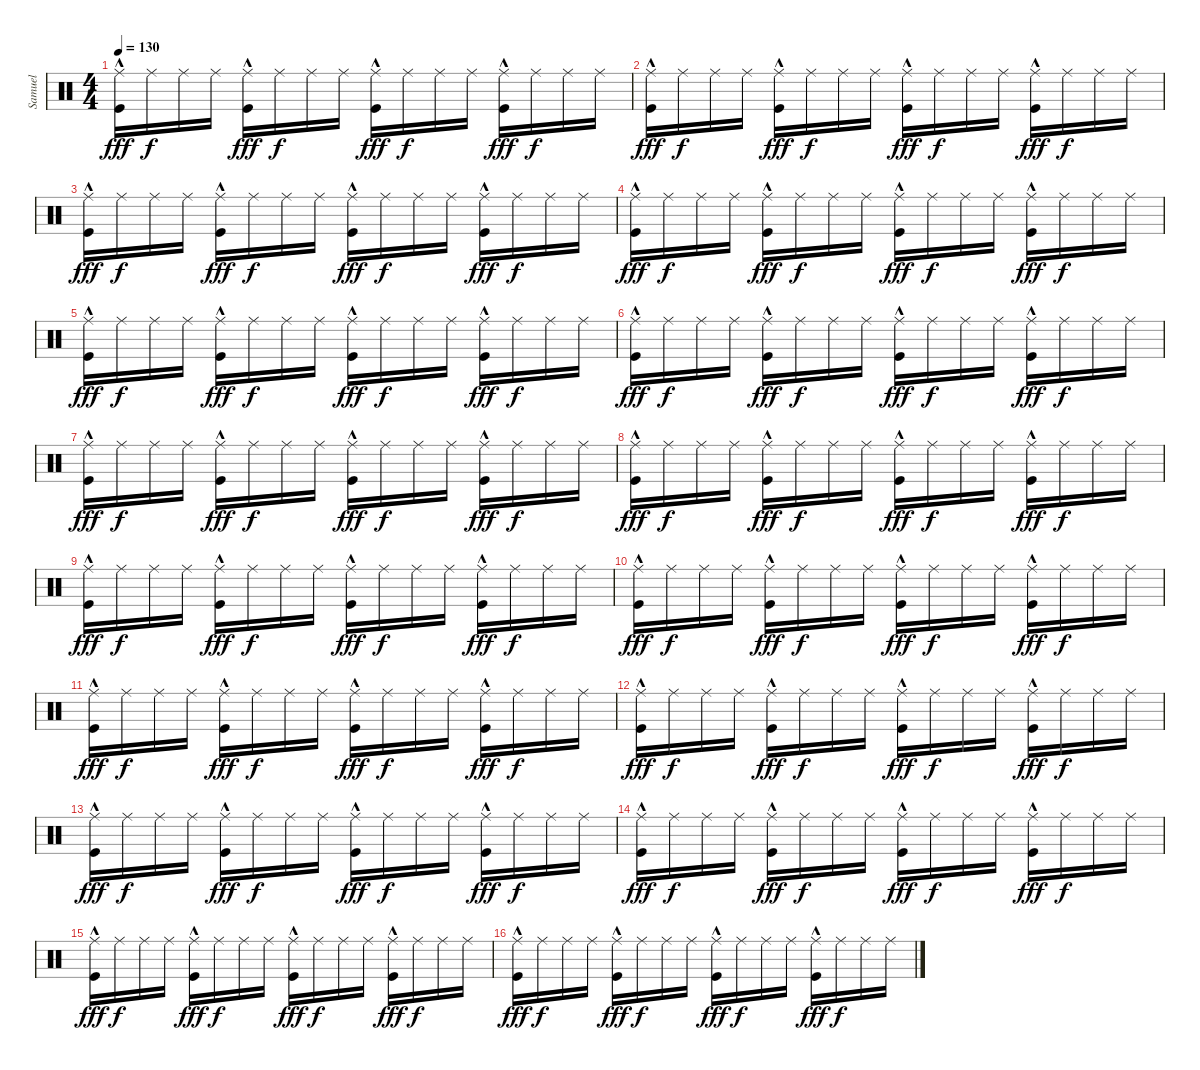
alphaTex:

\track ("Samuel" "Samuel") {instrument percussion}
\staff {score}
\articulation defaults
\ts (4 4)
\tempo 130
\clef neutral
\ks c
("Ride (middle)" "Kick (hit)"{hac}).16{dy fff} "Ride (middle)".16{dy f} "Ride (middle)".16 "Ride (middle)".16 ("Ride (middle)" "Kick (hit)"{hac}).16{dy fff} "Ride (middle)".16{dy f} "Ride (middle)".16 "Ride (middle)".16 ("Ride (middle)" "Kick (hit)"{hac}).16{dy fff} "Ride (middle)".16{dy f} "Ride (middle)".16 "Ride (middle)".16 ("Ride (middle)" "Kick (hit)"{hac}).16{dy fff} "Ride (middle)".16{dy f} "Ride (middle)".16 "Ride (middle)".16 |
("Ride (middle)" "Kick (hit)"{hac}).16{dy fff} "Ride (middle)".16{dy f} "Ride (middle)".16 "Ride (middle)".16 ("Ride (middle)" "Kick (hit)"{hac}).16{dy fff} "Ride (middle)".16{dy f} "Ride (middle)".16 "Ride (middle)".16 ("Ride (middle)" "Kick (hit)"{hac}).16{dy fff} "Ride (middle)".16{dy f} "Ride (middle)".16 "Ride (middle)".16 ("Ride (middle)" "Kick (hit)"{hac}).16{dy fff} "Ride (middle)".16{dy f} "Ride (middle)".16 "Ride (middle)".16 |
("Ride (middle)" "Kick (hit)"{hac}).16{dy fff} "Ride (middle)".16{dy f} "Ride (middle)".16 "Ride (middle)".16 ("Ride (middle)" "Kick (hit)"{hac}).16{dy fff} "Ride (middle)".16{dy f} "Ride (middle)".16 "Ride (middle)".16 ("Ride (middle)" "Kick (hit)"{hac}).16{dy fff} "Ride (middle)".16{dy f} "Ride (middle)".16 "Ride (middle)".16 ("Ride (middle)" "Kick (hit)"{hac}).16{dy fff} "Ride (middle)".16{dy f} "Ride (middle)".16 "Ride (middle)".16 |
("Ride (middle)" "Kick (hit)"{hac}).16{dy fff} "Ride (middle)".16{dy f} "Ride (middle)".16 "Ride (middle)".16 ("Ride (middle)" "Kick (hit)"{hac}).16{dy fff} "Ride (middle)".16{dy f} "Ride (middle)".16 "Ride (middle)".16 ("Ride (middle)" "Kick (hit)"{hac}).16{dy fff} "Ride (middle)".16{dy f} "Ride (middle)".16 "Ride (middle)".16 ("Ride (middle)" "Kick (hit)"{hac}).16{dy fff} "Ride (middle)".16{dy f} "Ride (middle)".16 "Ride (middle)".16 |
("Ride (middle)" "Kick (hit)"{hac}).16{dy fff} "Ride (middle)".16{dy f} "Ride (middle)".16 "Ride (middle)".16 ("Ride (middle)" "Kick (hit)"{hac}).16{dy fff} "Ride (middle)".16{dy f} "Ride (middle)".16 "Ride (middle)".16 ("Ride (middle)" "Kick (hit)"{hac}).16{dy fff} "Ride (middle)".16{dy f} "Ride (middle)".16 "Ride (middle)".16 ("Ride (middle)" "Kick (hit)"{hac}).16{dy fff} "Ride (middle)".16{dy f} "Ride (middle)".16 "Ride (middle)".16 |
("Ride (middle)" "Kick (hit)"{hac}).16{dy fff} "Ride (middle)".16{dy f} "Ride (middle)".16 "Ride (middle)".16 ("Ride (middle)" "Kick (hit)"{hac}).16{dy fff} "Ride (middle)".16{dy f} "Ride (middle)".16 "Ride (middle)".16 ("Ride (middle)" "Kick (hit)"{hac}).16{dy fff} "Ride (middle)".16{dy f} "Ride (middle)".16 "Ride (middle)".16 ("Ride (middle)" "Kick (hit)"{hac}).16{dy fff} "Ride (middle)".16{dy f} "Ride (middle)".16 "Ride (middle)".16 |
("Ride (middle)" "Kick (hit)"{hac}).16{dy fff} "Ride (middle)".16{dy f} "Ride (middle)".16 "Ride (middle)".16 ("Ride (middle)" "Kick (hit)"{hac}).16{dy fff} "Ride (middle)".16{dy f} "Ride (middle)".16 "Ride (middle)".16 ("Ride (middle)" "Kick (hit)"{hac}).16{dy fff} "Ride (middle)".16{dy f} "Ride (middle)".16 "Ride (middle)".16 ("Ride (middle)" "Kick (hit)"{hac}).16{dy fff} "Ride (middle)".16{dy f} "Ride (middle)".16 "Ride (middle)".16 |
("Ride (middle)" "Kick (hit)"{hac}).16{dy fff} "Ride (middle)".16{dy f} "Ride (middle)".16 "Ride (middle)".16 ("Ride (middle)" "Kick (hit)"{hac}).16{dy fff} "Ride (middle)".16{dy f} "Ride (middle)".16 "Ride (middle)".16 ("Ride (middle)" "Kick (hit)"{hac}).16{dy fff} "Ride (middle)".16{dy f} "Ride (middle)".16 "Ride (middle)".16 ("Ride (middle)" "Kick (hit)"{hac}).16{dy fff} "Ride (middle)".16{dy f} "Ride (middle)".16 "Ride (middle)".16 |
("Ride (middle)" "Kick (hit)"{hac}).16{dy fff} "Ride (middle)".16{dy f} "Ride (middle)".16 "Ride (middle)".16 ("Ride (middle)" "Kick (hit)"{hac}).16{dy fff} "Ride (middle)".16{dy f} "Ride (middle)".16 "Ride (middle)".16 ("Ride (middle)" "Kick (hit)"{hac}).16{dy fff} "Ride (middle)".16{dy f} "Ride (middle)".16 "Ride (middle)".16 ("Ride (middle)" "Kick (hit)"{hac}).16{dy fff} "Ride (middle)".16{dy f} "Ride (middle)".16 "Ride (middle)".16 |
("Ride (middle)" "Kick (hit)"{hac}).16{dy fff} "Ride (middle)".16{dy f} "Ride (middle)".16 "Ride (middle)".16 ("Ride (middle)" "Kick (hit)"{hac}).16{dy fff} "Ride (middle)".16{dy f} "Ride (middle)".16 "Ride (middle)".16 ("Ride (middle)" "Kick (hit)"{hac}).16{dy fff} "Ride (middle)".16{dy f} "Ride (middle)".16 "Ride (middle)".16 ("Ride (middle)" "Kick (hit)"{hac}).16{dy fff} "Ride (middle)".16{dy f} "Ride (middle)".16 "Ride (middle)".16 |
("Ride (middle)" "Kick (hit)"{hac}).16{dy fff} "Ride (middle)".16{dy f} "Ride (middle)".16 "Ride (middle)".16 ("Ride (middle)" "Kick (hit)"{hac}).16{dy fff} "Ride (middle)".16{dy f} "Ride (middle)".16 "Ride (middle)".16 ("Ride (middle)" "Kick (hit)"{hac}).16{dy fff} "Ride (middle)".16{dy f} "Ride (middle)".16 "Ride (middle)".16 ("Ride (middle)" "Kick (hit)"{hac}).16{dy fff} "Ride (middle)".16{dy f} "Ride (middle)".16 "Ride (middle)".16 |
("Ride (middle)" "Kick (hit)"{hac}).16{dy fff} "Ride (middle)".16{dy f} "Ride (middle)".16 "Ride (middle)".16 ("Ride (middle)" "Kick (hit)"{hac}).16{dy fff} "Ride (middle)".16{dy f} "Ride (middle)".16 "Ride (middle)".16 ("Ride (middle)" "Kick (hit)"{hac}).16{dy fff} "Ride (middle)".16{dy f} "Ride (middle)".16 "Ride (middle)".16 ("Ride (middle)" "Kick (hit)"{hac}).16{dy fff} "Ride (middle)".16{dy f} "Ride (middle)".16 "Ride (middle)".16 |
("Ride (middle)" "Kick (hit)"{hac}).16{dy fff} "Ride (middle)".16{dy f} "Ride (middle)".16 "Ride (middle)".16 ("Ride (middle)" "Kick (hit)"{hac}).16{dy fff} "Ride (middle)".16{dy f} "Ride (middle)".16 "Ride (middle)".16 ("Ride (middle)" "Kick (hit)"{hac}).16{dy fff} "Ride (middle)".16{dy f} "Ride (middle)".16 "Ride (middle)".16 ("Ride (middle)" "Kick (hit)"{hac}).16{dy fff} "Ride (middle)".16{dy f} "Ride (middle)".16 "Ride (middle)".16 |
("Ride (middle)" "Kick (hit)"{hac}).16{dy fff} "Ride (middle)".16{dy f} "Ride (middle)".16 "Ride (middle)".16 ("Ride (middle)" "Kick (hit)"{hac}).16{dy fff} "Ride (middle)".16{dy f} "Ride (middle)".16 "Ride (middle)".16 ("Ride (middle)" "Kick (hit)"{hac}).16{dy fff} "Ride (middle)".16{dy f} "Ride (middle)".16 "Ride (middle)".16 ("Ride (middle)" "Kick (hit)"{hac}).16{dy fff} "Ride (middle)".16{dy f} "Ride (middle)".16 "Ride (middle)".16 |
("Ride (middle)" "Kick (hit)"{hac}).16{dy fff} "Ride (middle)".16{dy f} "Ride (middle)".16 "Ride (middle)".16 ("Ride (middle)" "Kick (hit)"{hac}).16{dy fff} "Ride (middle)".16{dy f} "Ride (middle)".16 "Ride (middle)".16 ("Ride (middle)" "Kick (hit)"{hac}).16{dy fff} "Ride (middle)".16{dy f} "Ride (middle)".16 "Ride (middle)".16 ("Ride (middle)" "Kick (hit)"{hac}).16{dy fff} "Ride (middle)".16{dy f} "Ride (middle)".16 "Ride (middle)".16 |
("Ride (middle)" "Kick (hit)"{hac}).16{dy fff} "Ride (middle)".16{dy f} "Ride (middle)".16 "Ride (middle)".16 ("Ride (middle)" "Kick (hit)"{hac}).16{dy fff} "Ride (middle)".16{dy f} "Ride (middle)".16 "Ride (middle)".16 ("Ride (middle)" "Kick (hit)"{hac}).16{dy fff} "Ride (middle)".16{dy f} "Ride (middle)".16 "Ride (middle)".16 ("Ride (middle)" "Kick (hit)"{hac}).16{dy fff} "Ride (middle)".16{dy f} "Ride (middle)".16 "Ride (middle)".16
